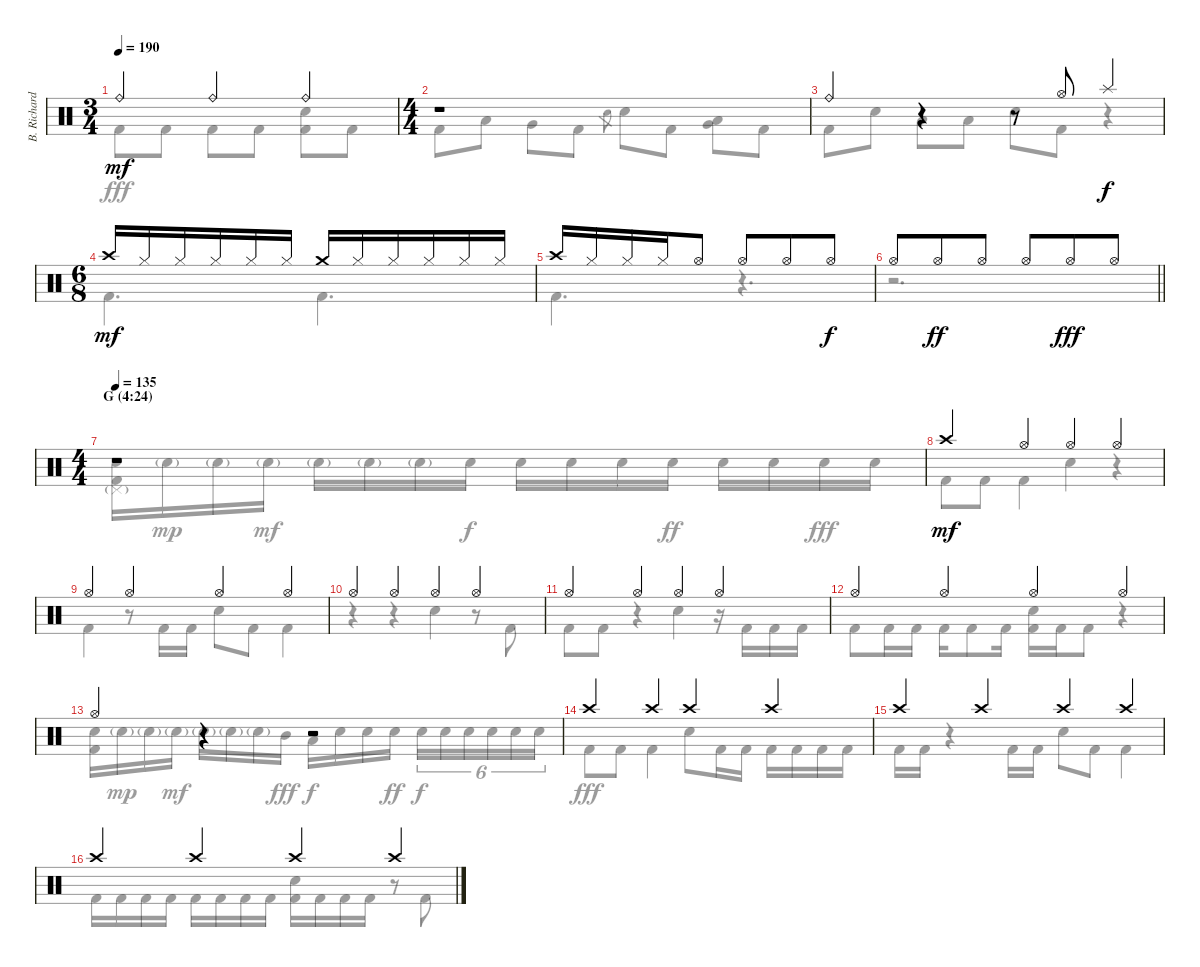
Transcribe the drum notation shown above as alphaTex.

\track ("B. Richardson Drums" "B. Richard") {instrument percussion}
\staff {score}
\articulation defaults
\voice
\ts (3 4)
\tempo 190
\clef neutral
\ks c "Ride (bell)".4{dy mf} "Ride (bell)".4 "Ride (bell)".4
|
\ts (4 4)
r.1 |
"Ride (bell)".4 r.4 r.8 "Hi-Hat (open)".8 "Splash (hit)".4{dy f} |
\ts (6 8)
"Crash high (hit)".16{dy mf} "Hi-Hat (closed)".16 "Hi-Hat (closed)".16 "Hi-Hat (closed)".16 "Hi-Hat (closed)".16 "Hi-Hat (closed)".16 "Crash medium (hit)".16 "Hi-Hat (closed)".16 "Hi-Hat (closed)".16 "Hi-Hat (closed)".16 "Hi-Hat (closed)".16 "Hi-Hat (closed)".16 |
"Crash high (hit)".16 "Hi-Hat (closed)".16 "Hi-Hat (closed)".16 "Hi-Hat (closed)".16 "Hi-Hat (open)".8 "Hi-Hat (open)".8 "Hi-Hat (open)".8 "Hi-Hat (open)".8{dy f} |
\barLineRight lightlight "Hi-Hat (open)".8 "Hi-Hat (open)".8{dy ff} "Hi-Hat (open)".8 "Hi-Hat (open)".8 "Hi-Hat (open)".8{dy fff} "Hi-Hat (open)".8
|
\ts (4 4)
\section ("" "G (4:24)")
\tempo 135
r.1 |
"Crash high (hit)".4{dy mf} "Hi-Hat (open)".4 "Hi-Hat (open)".4 "Hi-Hat (open)".4 |
"Hi-Hat (open)".4 "Hi-Hat (open)".4 "Hi-Hat (open)".4 "Hi-Hat (open)".4 |
"Hi-Hat (open)".4 "Hi-Hat (open)".4 "Hi-Hat (open)".4 "Hi-Hat (open)".4 |
"Hi-Hat (open)".4 "Hi-Hat (open)".4 "Hi-Hat (open)".4 "Hi-Hat (open)".4 |
"Hi-Hat (open)".4 "Hi-Hat (open)".4 "Hi-Hat (open)".4 "Hi-Hat (open)".4 |
"Hi-Hat (open)".4 r.4 r.2 |
"Crash high (hit)".4 "Crash high (hit)".4 "Crash high (hit)".4 "Crash high (hit)".4 |
"Crash high (hit)".4 "Crash high (hit)".4 "Crash high (hit)".4 "Crash high (hit)".4 |
"Crash high (hit)".4 "Crash high (hit)".4 "Crash high (hit)".4 "Crash high (hit)".4
\voice
\clef neutral
\ottava regular
\simile none
\ks c "Kick (hit) 2".8{dy fff} "Kick (hit) 2".8 "Kick (hit) 2".8 "Kick (hit) 2".8
("Electric Snare (hit)" "Kick (hit) 2").8 "Kick (hit) 2".8 |
"Kick (hit) 2".8 "Low Tom (hit)".8 "Very Low Tom (hit)".8 "Kick (hit) 2".8 "Electric Snare (hit)".8{gr} "Electric Snare (hit)".8 "Kick (hit) 2".8 ("Low Tom (hit)" "Very Low Tom (hit)").8 "Kick (hit) 2".8 |
"Kick (hit) 2".8 "Electric Snare (hit)".8 "Low Tom (hit)".8 "Low Tom (hit)".8 "Electric Snare (hit)".8 "Kick (hit) 2".8 r.4 |
"Kick (hit) 2".4{d} "Kick (hit) 2".4{d} |
"Kick (hit) 2".4{d} r.4{d} |
\barLineRight lightlight
r.2{d} |
("Electric Snare (hit)" "Pedal Hi-Hat (hit)"{g} "Kick (hit) 2").16 "Electric Snare (hit)"{g}.16{dy mp} "Electric Snare (hit)"{g}.16 "Electric Snare (hit)"{g}.16{dy mf} "Electric Snare (hit)"{g}.16 "Electric Snare (hit)"{g}.16 "Electric Snare (hit)"{g}.16 "Electric Snare (hit)".16{dy f} "Electric Snare (hit)".16 "Electric Snare (hit)".16 "Electric Snare (hit)".16 "Electric Snare (hit)".16{dy ff} "Electric Snare (hit)".16 "Electric Snare (hit)".16 "Electric Snare (hit)".16{dy fff} "Electric Snare (hit)".16 |
"Kick (hit) 2".8 "Kick (hit) 2".8 "Kick (hit) 2".4 "Electric Snare (hit)".4 r.4 |
"Kick (hit) 2".4 r.8 "Kick (hit) 2".16 "Kick (hit) 2".16 "Electric Snare (hit)".8 "Kick (hit) 2".8 "Kick (hit) 2".4 |
r.4 r.4 "Electric Snare (hit)".4 r.8 "Kick (hit) 2".8 |
"Kick (hit) 2".8 "Kick (hit) 2".8 r.4 "Electric Snare (hit)".4 r.16 "Kick (hit) 2".16 "Kick (hit) 2".16 "Kick (hit) 2".16 |
"Kick (hit) 2".8 "Kick (hit) 2".16 "Kick (hit) 2".16 "Kick (hit) 2".16 "Kick (hit) 2".8 "Kick (hit) 2".16 ("Electric Snare (hit)" "Kick (hit) 2").16 "Kick (hit) 2".16 "Kick (hit) 2".8 r.4 |
("Electric Snare (hit)" "Kick (hit) 2").16 "Electric Snare (hit)"{g}.16{dy mp} "Electric Snare (hit)"{g}.16 "Electric Snare (hit)"{g}.16{dy mf} "Electric Snare (hit)"{g}.16 "Electric Snare (hit)"{g}.16 "Electric Snare (hit)"{g}.16 "Mid Tom (hit)".16{dy fff} "Low Tom (hit)".16{dy f} "Electric Snare (hit)".16 "Electric Snare (hit)".16 "Electric Snare (hit)".16{dy ff} "Electric Snare (hit)".16{tu (6 4) dy f} "Electric Snare (hit)".16{tu (6 4)} "Electric Snare (hit)".16{tu (6 4)} "Electric Snare (hit)".16{tu (6 4)} "Electric Snare (hit)".16{tu (6 4)} "Electric Snare (hit)".16{tu (6 4)} |
"Kick (hit) 2".8{dy fff} "Kick (hit) 2".8 "Kick (hit) 2".4 "Electric Snare (hit)".8 "Kick (hit) 2".16 "Kick (hit) 2".16 "Kick (hit) 2".16 "Kick (hit) 2".16 "Kick (hit) 2".16 "Kick (hit) 2".16 |
"Kick (hit) 2".16 "Kick (hit) 2".16 r.4 "Kick (hit) 2".16 "Kick (hit) 2".16 "Electric Snare (hit)".8 "Kick (hit) 2".8 "Kick (hit) 2".4 |
"Kick (hit) 2".16 "Kick (hit) 2".16 "Kick (hit) 2".16 "Kick (hit) 2".16 "Kick (hit) 2".16 "Kick (hit) 2".16 "Kick (hit) 2".16 "Kick (hit) 2".16 ("Electric Snare (hit)" "Kick (hit) 2").16 "Kick (hit) 2".16 "Kick (hit) 2".16 "Kick (hit) 2".16 r.8 "Kick (hit) 2".8
